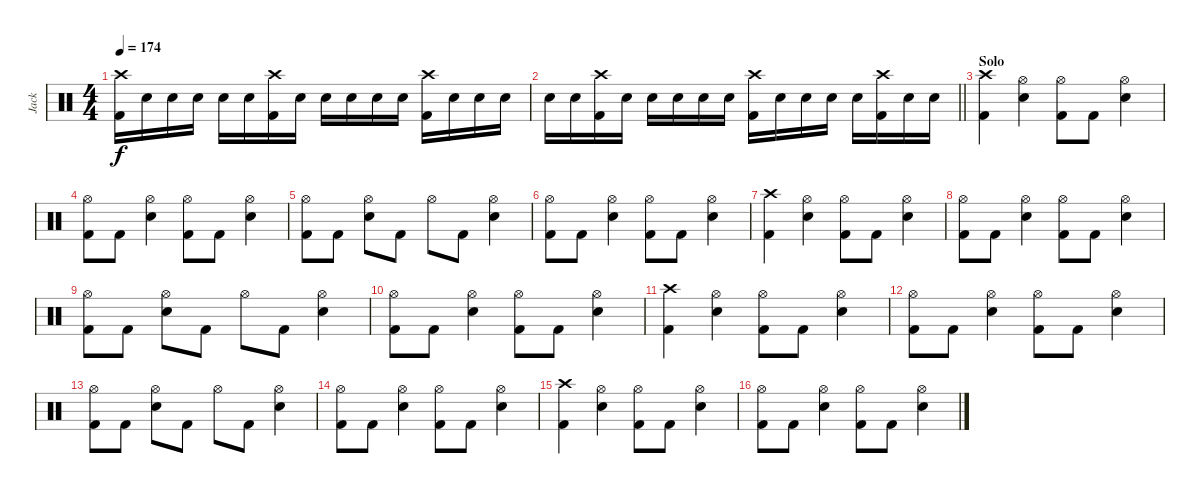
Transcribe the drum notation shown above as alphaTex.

\track ("Jack" "Jack") {instrument percussion}
\staff {score}
\articulation defaults
\ts (4 4)
\tempo 174
\clef neutral
\ks c
("Crash high (hit)" "Kick (hit) 2").16{dy f} "Electric Snare (hit)".16 "Electric Snare (hit)".16 "Electric Snare (hit)".16 "Electric Snare (hit)".16 "Electric Snare (hit)".16 ("Crash high (hit)" "Kick (hit) 2").16 "Electric Snare (hit)".16 "Electric Snare (hit)".16 "Electric Snare (hit)".16 "Electric Snare (hit)".16 "Electric Snare (hit)".16 ("Crash high (hit)" "Kick (hit) 2").16 "Electric Snare (hit)".16 "Electric Snare (hit)".16 "Electric Snare (hit)".16 |
\barLineRight lightlight "Electric Snare (hit)".16 "Electric Snare (hit)".16
("Crash high (hit)" "Kick (hit) 2").16 "Electric Snare (hit)".16 "Electric Snare (hit)".16 "Electric Snare (hit)".16 "Electric Snare (hit)".16 "Electric Snare (hit)".16 ("Crash high (hit)" "Kick (hit) 2").16 "Electric Snare (hit)".16 "Electric Snare (hit)".16 "Electric Snare (hit)".16 "Electric Snare (hit)".16 ("Crash high (hit)" "Kick (hit) 2").16 "Electric Snare (hit)".16 "Electric Snare (hit)".16 |
\section ("" "Solo")
("Crash high (hit)" "Kick (hit) 2").4 ("Hi-Hat (open)" "Electric Snare (hit)").4 ("Hi-Hat (open)" "Kick (hit) 2").8 "Kick (hit) 2".8 ("Hi-Hat (open)" "Electric Snare (hit)").4 |
("Hi-Hat (open)" "Kick (hit) 2").8 "Kick (hit) 2".8 ("Hi-Hat (open)" "Electric Snare (hit)").4 ("Hi-Hat (open)" "Kick (hit) 2").8 "Kick (hit) 2".8 ("Hi-Hat (open)" "Electric Snare (hit)").4 |
("Hi-Hat (open)" "Kick (hit) 2").8 "Kick (hit) 2".8 ("Hi-Hat (open)" "Electric Snare (hit)").8 "Kick (hit) 2".8 "Hi-Hat (open)".8 "Kick (hit) 2".8 ("Hi-Hat (open)" "Electric Snare (hit)").4 |
("Hi-Hat (open)" "Kick (hit) 2").8 "Kick (hit) 2".8 ("Hi-Hat (open)" "Electric Snare (hit)").4 ("Hi-Hat (open)" "Kick (hit) 2").8 "Kick (hit) 2".8 ("Hi-Hat (open)" "Electric Snare (hit)").4 |
("Crash high (hit)" "Kick (hit) 2").4 ("Hi-Hat (open)" "Electric Snare (hit)").4 ("Hi-Hat (open)" "Kick (hit) 2").8 "Kick (hit) 2".8 ("Hi-Hat (open)" "Electric Snare (hit)").4 |
("Hi-Hat (open)" "Kick (hit) 2").8 "Kick (hit) 2".8 ("Hi-Hat (open)" "Electric Snare (hit)").4 ("Hi-Hat (open)" "Kick (hit) 2").8 "Kick (hit) 2".8 ("Hi-Hat (open)" "Electric Snare (hit)").4 |
("Hi-Hat (open)" "Kick (hit) 2").8 "Kick (hit) 2".8 ("Hi-Hat (open)" "Electric Snare (hit)").8 "Kick (hit) 2".8 "Hi-Hat (open)".8 "Kick (hit) 2".8 ("Hi-Hat (open)" "Electric Snare (hit)").4 |
("Hi-Hat (open)" "Kick (hit) 2").8 "Kick (hit) 2".8 ("Hi-Hat (open)" "Electric Snare (hit)").4 ("Hi-Hat (open)" "Kick (hit) 2").8 "Kick (hit) 2".8 ("Hi-Hat (open)" "Electric Snare (hit)").4 |
("Crash high (hit)" "Kick (hit) 2").4 ("Hi-Hat (open)" "Electric Snare (hit)").4 ("Hi-Hat (open)" "Kick (hit) 2").8 "Kick (hit) 2".8 ("Hi-Hat (open)" "Electric Snare (hit)").4 |
("Hi-Hat (open)" "Kick (hit) 2").8 "Kick (hit) 2".8 ("Hi-Hat (open)" "Electric Snare (hit)").4 ("Hi-Hat (open)" "Kick (hit) 2").8 "Kick (hit) 2".8 ("Hi-Hat (open)" "Electric Snare (hit)").4 |
("Hi-Hat (open)" "Kick (hit) 2").8 "Kick (hit) 2".8 ("Hi-Hat (open)" "Electric Snare (hit)").8 "Kick (hit) 2".8 "Hi-Hat (open)".8 "Kick (hit) 2".8 ("Hi-Hat (open)" "Electric Snare (hit)").4 |
("Hi-Hat (open)" "Kick (hit) 2").8 "Kick (hit) 2".8 ("Hi-Hat (open)" "Electric Snare (hit)").4 ("Hi-Hat (open)" "Kick (hit) 2").8 "Kick (hit) 2".8 ("Hi-Hat (open)" "Electric Snare (hit)").4 |
("Crash high (hit)" "Kick (hit) 2").4 ("Hi-Hat (open)" "Electric Snare (hit)").4 ("Hi-Hat (open)" "Kick (hit) 2").8 "Kick (hit) 2".8 ("Hi-Hat (open)" "Electric Snare (hit)").4 |
("Hi-Hat (open)" "Kick (hit) 2").8 "Kick (hit) 2".8 ("Hi-Hat (open)" "Electric Snare (hit)").4 ("Hi-Hat (open)" "Kick (hit) 2").8 "Kick (hit) 2".8 ("Hi-Hat (open)" "Electric Snare (hit)").4
